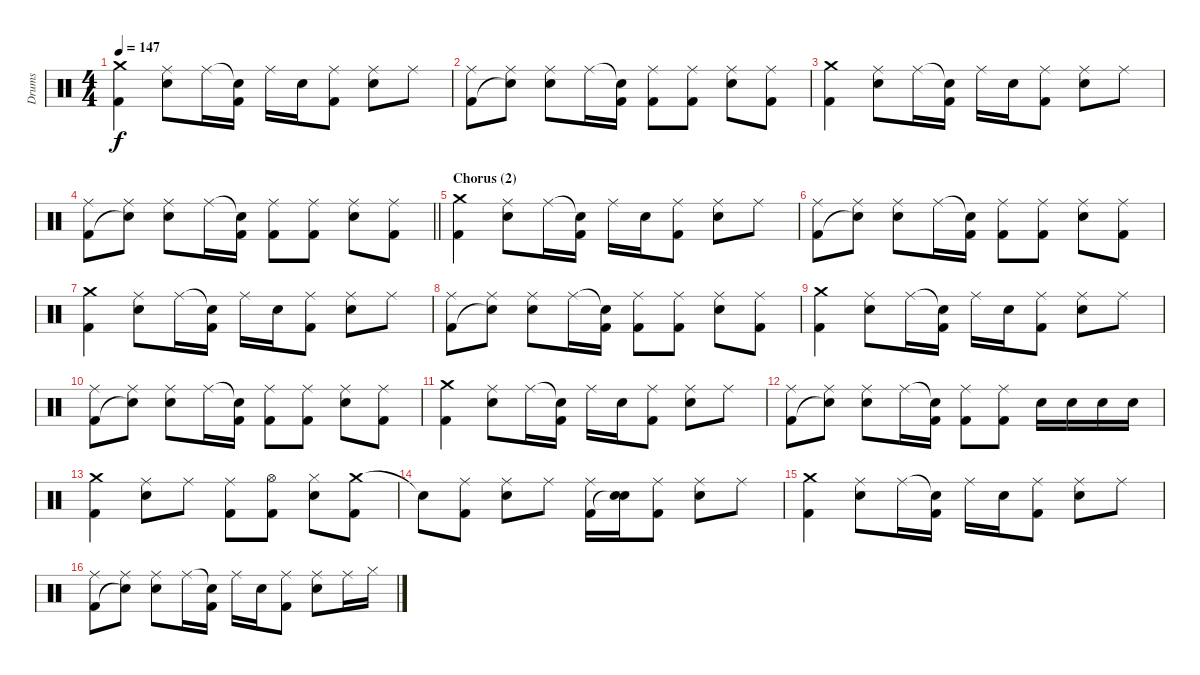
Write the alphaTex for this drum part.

\track ("Drums" "Drums") {instrument percussion}
\staff {score}
\articulation defaults
\ts (4 4)
\tempo 147
\clef neutral
\ks aminor
("Crash medium (hit)" "Kick (hit) 2").4{dy f} ("Ride (middle)" "Electric Snare (hit)").8 "Ride (middle)".16 ("Snare (hit)"{t} "Kick (hit) 2").16 "Ride (middle)".16 "Electric Snare (hit)".16 ("Ride (middle)" "Kick (hit) 2").8 ("Ride (middle)" "Electric Snare (hit)").8 "Ride (middle)".8 |
("Ride (middle)" "Kick (hit) 2").8 ("Ride (middle)" "Snare (hit)"{t}).8 ("Ride (middle)" "Electric Snare (hit)").8 "Ride (middle)".16 ("Snare (hit)"{t} "Kick (hit) 2").16 ("Ride (middle)" "Kick (hit) 2").8 ("Ride (middle)" "Kick (hit) 2").8 ("Ride (middle)" "Electric Snare (hit)").8 ("Ride (middle)" "Kick (hit) 2").8 |
("Crash medium (hit)" "Kick (hit) 2").4 ("Ride (middle)" "Electric Snare (hit)").8 "Ride (middle)".16 ("Snare (hit)"{t} "Kick (hit) 2").16 "Ride (middle)".16 "Electric Snare (hit)".16 ("Ride (middle)" "Kick (hit) 2").8 ("Ride (middle)" "Electric Snare (hit)").8 "Ride (middle)".8 |
\barLineRight lightlight
("Ride (middle)" "Kick (hit) 2").8 ("Ride (middle)" "Snare (hit)"{t}).8 ("Ride (middle)" "Electric Snare (hit)").8 "Ride (middle)".16 ("Snare (hit)"{t} "Kick (hit) 2").16 ("Ride (middle)" "Kick (hit) 2").8 ("Ride (middle)" "Kick (hit) 2").8 ("Ride (middle)" "Electric Snare (hit)").8 ("Ride (middle)" "Kick (hit) 2").8 |
\section ("" "Chorus (2)")
("Crash medium (hit)" "Kick (hit) 2").4 ("Ride (middle)" "Electric Snare (hit)").8 "Ride (middle)".16 ("Snare (hit)"{t} "Kick (hit) 2").16 "Ride (middle)".16 "Electric Snare (hit)".16 ("Ride (middle)" "Kick (hit) 2").8 ("Ride (middle)" "Electric Snare (hit)").8 "Ride (middle)".8 |
("Ride (middle)" "Kick (hit) 2").8 ("Ride (middle)" "Snare (hit)"{t}).8 ("Ride (middle)" "Electric Snare (hit)").8 "Ride (middle)".16 ("Snare (hit)"{t} "Kick (hit) 2").16 ("Ride (middle)" "Kick (hit) 2").8 ("Ride (middle)" "Kick (hit) 2").8 ("Ride (middle)" "Electric Snare (hit)").8 ("Ride (middle)" "Kick (hit) 2").8 |
("Crash medium (hit)" "Kick (hit) 2").4 ("Ride (middle)" "Electric Snare (hit)").8 "Ride (middle)".16 ("Snare (hit)"{t} "Kick (hit) 2").16 "Ride (middle)".16 "Electric Snare (hit)".16 ("Ride (middle)" "Kick (hit) 2").8 ("Ride (middle)" "Electric Snare (hit)").8 "Ride (middle)".8 |
("Ride (middle)" "Kick (hit) 2").8 ("Ride (middle)" "Snare (hit)"{t}).8 ("Ride (middle)" "Electric Snare (hit)").8 "Ride (middle)".16 ("Snare (hit)"{t} "Kick (hit) 2").16 ("Ride (middle)" "Kick (hit) 2").8 ("Ride (middle)" "Kick (hit) 2").8 ("Ride (middle)" "Electric Snare (hit)").8 ("Ride (middle)" "Kick (hit) 2").8 |
("Crash medium (hit)" "Kick (hit) 2").4 ("Ride (middle)" "Electric Snare (hit)").8 "Ride (middle)".16 ("Snare (hit)"{t} "Kick (hit) 2").16 "Ride (middle)".16 "Electric Snare (hit)".16 ("Ride (middle)" "Kick (hit) 2").8 ("Ride (middle)" "Electric Snare (hit)").8 "Ride (middle)".8 |
("Ride (middle)" "Kick (hit) 2").8 ("Ride (middle)" "Snare (hit)"{t}).8 ("Ride (middle)" "Electric Snare (hit)").8 "Ride (middle)".16 ("Snare (hit)"{t} "Kick (hit) 2").16 ("Ride (middle)" "Kick (hit) 2").8 ("Ride (middle)" "Kick (hit) 2").8 ("Ride (middle)" "Electric Snare (hit)").8 ("Ride (middle)" "Kick (hit) 2").8 |
("Crash medium (hit)" "Kick (hit) 2").4 ("Ride (middle)" "Electric Snare (hit)").8 "Ride (middle)".16 ("Snare (hit)"{t} "Kick (hit) 2").16 "Ride (middle)".16 "Electric Snare (hit)".16 ("Ride (middle)" "Kick (hit) 2").8 ("Ride (middle)" "Electric Snare (hit)").8 "Ride (middle)".8 |
("Ride (middle)" "Kick (hit) 2").8 ("Ride (middle)" "Snare (hit)"{t}).8 ("Ride (middle)" "Electric Snare (hit)").8 "Ride (middle)".16 ("Snare (hit)"{t} "Kick (hit) 2").16 ("Ride (middle)" "Kick (hit) 2").8 ("Ride (middle)" "Kick (hit) 2").8 "Electric Snare (hit)".16 "Electric Snare (hit)".16 "Electric Snare (hit)".16 "Electric Snare (hit)".16 |
("Crash medium (hit)" "Kick (hit) 2").4 ("Ride (middle)" "Electric Snare (hit)").8 "Ride (middle)".8 ("Ride (middle)" "Kick (hit) 2").8 ("Hi-Hat (open)" "Kick (hit) 2").8 ("Hi-Hat (closed)" "Electric Snare (hit)").8 ("Crash medium (hit)" "Kick (hit) 2").8 |
"Snare (hit)"{t}.8 ("Ride (middle)" "Kick (hit) 2").8 ("Ride (middle)" "Electric Snare (hit)").8 "Ride (middle)".8 ("Ride (middle)" "Kick (hit) 2").16 ("Electric Snare (hit)" "Snare (hit)"{t}).16 ("Ride (middle)" "Kick (hit) 2").8 ("Ride (middle)" "Electric Snare (hit)").8 "Ride (middle)".8 |
("Crash medium (hit)" "Kick (hit) 2").4 ("Ride (middle)" "Electric Snare (hit)").8 "Ride (middle)".16 ("Snare (hit)"{t} "Kick (hit) 2").16 "Ride (middle)".16 "Electric Snare (hit)".16 ("Ride (middle)" "Kick (hit) 2").8 ("Ride (middle)" "Electric Snare (hit)").8 "Ride (middle)".8 |
("Ride (middle)" "Kick (hit) 2").8 ("Ride (middle)" "Snare (hit)"{t}).8 ("Ride (middle)" "Electric Snare (hit)").8 "Ride (middle)".16 ("Snare (hit)"{t} "Kick (hit) 2").16 "Ride (middle)".16 "Electric Snare (hit)".16 ("Ride (middle)" "Kick (hit) 2").8 ("Ride (middle)" "Electric Snare (hit)").8 "Ride (middle)".16 "Hi-Hat (closed)".16
